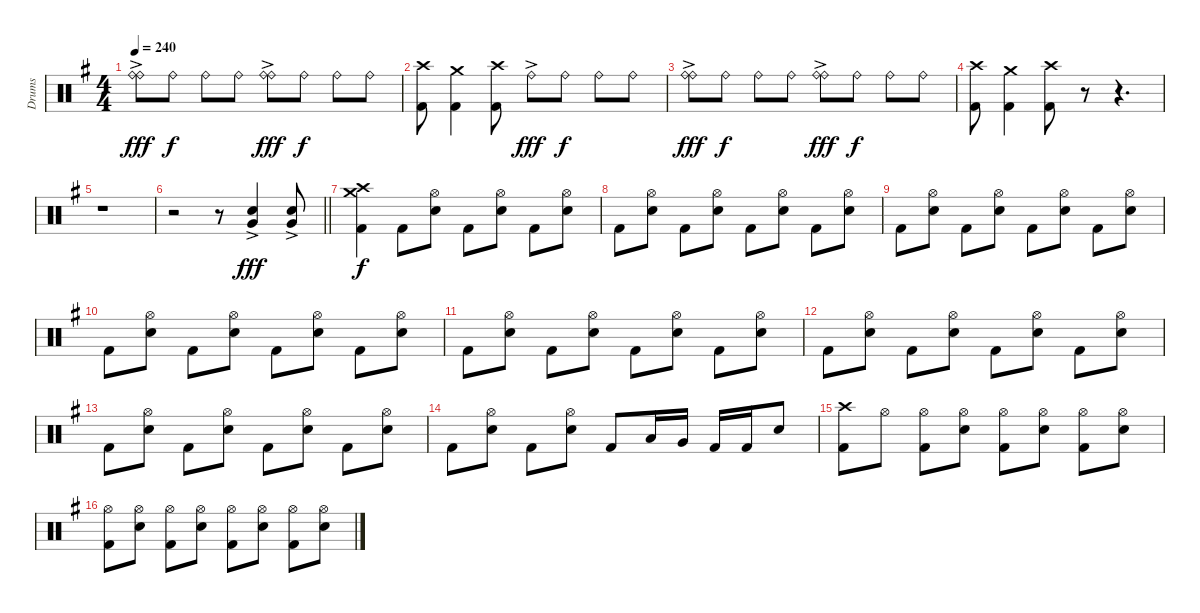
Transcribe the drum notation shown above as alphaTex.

\track ("Drums" "Drums") {instrument percussion}
\staff {score}
\articulation defaults
\ts (4 4)
\tempo 240
\clef neutral
\ks eminor
("Ride (bell)"{ac} "Ride (bell)").8{dy fff} "Ride (bell)".8{dy f} "Ride (bell)".8 "Ride (bell)".8 ("Ride (bell)"{ac} "Ride (bell)").8{dy fff} "Ride (bell)".8{dy f} "Ride (bell)".8 "Ride (bell)".8 |
("Crash high (hit)" "Kick (hit) 2").8 ("Crash medium (hit)" "Kick (hit) 2").4 ("Crash high (hit)" "Kick (hit) 2").8 "Ride (bell)"{ac}.8{dy fff} "Ride (bell)".8{dy f} "Ride (bell)".8 "Ride (bell)".8 |
("Ride (bell)"{ac} "Ride (bell)").8{dy fff} "Ride (bell)".8{dy f} "Ride (bell)".8 "Ride (bell)".8 ("Ride (bell)"{ac} "Ride (bell)").8{dy fff} "Ride (bell)".8{dy f} "Ride (bell)".8 "Ride (bell)".8 |
("Crash high (hit)" "Kick (hit) 2").8 ("Crash medium (hit)" "Kick (hit) 2").4 ("Crash high (hit)" "Kick (hit) 2").8 r.8{volume 0} r.4{d} |
r.1 |
\barLineRight lightlight
r.2 r.8{volume 16} ("Snare (hit) 2" "Very Low Tom (hit)"{ac}).4{dy fff} ("Snare (hit) 2" "Very Low Tom (hit)"{ac}).8 |
("Crash high (hit)" "Crash medium (hit)" "Kick (hit) 2").4{dy f} "Kick (hit) 2".8 ("Hi-Hat (open)" "Snare (hit) 2").8 "Kick (hit) 2".8 ("Hi-Hat (open)" "Snare (hit) 2").8 "Kick (hit) 2".8 ("Hi-Hat (open)" "Snare (hit) 2").8 |
"Kick (hit) 2".8 ("Hi-Hat (open)" "Snare (hit) 2").8 "Kick (hit) 2".8 ("Hi-Hat (open)" "Snare (hit) 2").8 "Kick (hit) 2".8 ("Hi-Hat (open)" "Snare (hit) 2").8 "Kick (hit) 2".8 ("Hi-Hat (open)" "Snare (hit) 2").8 |
"Kick (hit) 2".8 ("Hi-Hat (open)" "Snare (hit) 2").8 "Kick (hit) 2".8 ("Hi-Hat (open)" "Snare (hit) 2").8 "Kick (hit) 2".8 ("Hi-Hat (open)" "Snare (hit) 2").8 "Kick (hit) 2".8 ("Hi-Hat (open)" "Snare (hit) 2").8 |
"Kick (hit) 2".8 ("Hi-Hat (open)" "Snare (hit) 2").8 "Kick (hit) 2".8 ("Hi-Hat (open)" "Snare (hit) 2").8 "Kick (hit) 2".8 ("Hi-Hat (open)" "Snare (hit) 2").8 "Kick (hit) 2".8 ("Hi-Hat (open)" "Snare (hit) 2").8 |
"Kick (hit) 2".8 ("Hi-Hat (open)" "Snare (hit) 2").8 "Kick (hit) 2".8 ("Hi-Hat (open)" "Snare (hit) 2").8 "Kick (hit) 2".8 ("Hi-Hat (open)" "Snare (hit) 2").8 "Kick (hit) 2".8 ("Hi-Hat (open)" "Snare (hit) 2").8 |
"Kick (hit) 2".8 ("Hi-Hat (open)" "Snare (hit) 2").8 "Kick (hit) 2".8 ("Hi-Hat (open)" "Snare (hit) 2").8 "Kick (hit) 2".8 ("Hi-Hat (open)" "Snare (hit) 2").8 "Kick (hit) 2".8 ("Hi-Hat (open)" "Snare (hit) 2").8 |
"Kick (hit) 2".8 ("Hi-Hat (open)" "Snare (hit) 2").8 "Kick (hit) 2".8 ("Hi-Hat (open)" "Snare (hit) 2").8 "Kick (hit) 2".8 ("Hi-Hat (open)" "Snare (hit) 2").8 "Kick (hit) 2".8 ("Hi-Hat (open)" "Snare (hit) 2").8 |
"Kick (hit) 2".8 ("Hi-Hat (open)" "Snare (hit) 2").8 "Kick (hit) 2".8 ("Hi-Hat (open)" "Snare (hit) 2").8 "Kick (hit) 2".8 "Low Tom (hit)".16 "Very Low Tom (hit)".16 "Kick (hit) 2".16 "Kick (hit) 2".16 "Snare (hit) 2".8 |
("Crash high (hit)" "Kick (hit) 2").8 "Hi-Hat (open)".8 ("Hi-Hat (open)" "Kick (hit) 2").8 ("Hi-Hat (open)" "Snare (hit) 2").8 ("Hi-Hat (open)" "Kick (hit) 2").8 ("Hi-Hat (open)" "Snare (hit) 2").8 ("Hi-Hat (open)" "Kick (hit) 2").8 ("Hi-Hat (open)" "Snare (hit) 2").8 |
("Hi-Hat (open)" "Kick (hit) 2").8 ("Hi-Hat (open)" "Snare (hit) 2").8 ("Hi-Hat (open)" "Kick (hit) 2").8 ("Hi-Hat (open)" "Snare (hit) 2").8 ("Hi-Hat (open)" "Kick (hit) 2").8 ("Hi-Hat (open)" "Snare (hit) 2").8 ("Hi-Hat (open)" "Kick (hit) 2").8 ("Hi-Hat (open)" "Snare (hit) 2").8
